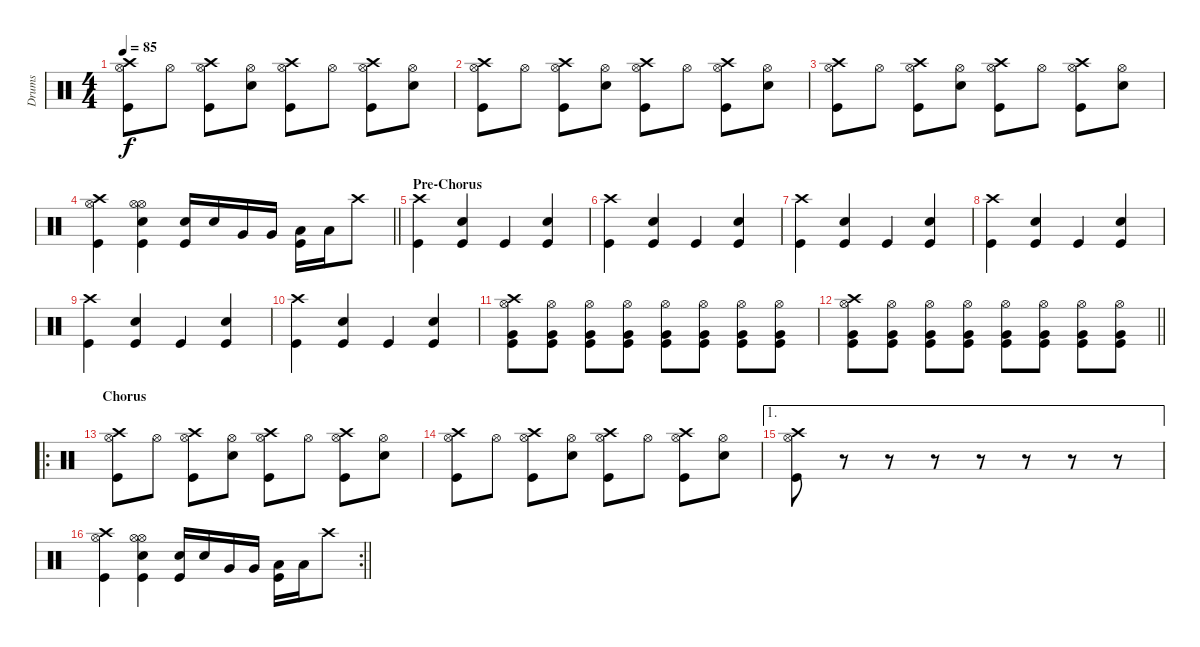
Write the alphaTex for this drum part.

\track ("Drums" "Drums") {instrument percussion}
\staff {score}
\articulation defaults
\ts (4 4)
\tempo 85
\clef neutral
\ks c
("Crash high (hit)" "Hi-Hat (open)" "Kick (hit)").8{dy f} "Hi-Hat (open)".8 ("Crash high (hit)" "Hi-Hat (open)" "Kick (hit)").8 ("Hi-Hat (open)" "Snare (hit) 2").8 ("Crash high (hit)" "Hi-Hat (open)" "Kick (hit)").8 "Hi-Hat (open)".8 ("Crash high (hit)" "Hi-Hat (open)" "Kick (hit)").8 ("Hi-Hat (open)" "Snare (hit) 2").8 |
("Crash high (hit)" "Hi-Hat (open)" "Kick (hit)").8 "Hi-Hat (open)".8 ("Crash high (hit)" "Hi-Hat (open)" "Kick (hit)").8 ("Hi-Hat (open)" "Snare (hit) 2").8 ("Crash high (hit)" "Hi-Hat (open)" "Kick (hit)").8 "Hi-Hat (open)".8 ("Crash high (hit)" "Hi-Hat (open)" "Kick (hit)").8 ("Hi-Hat (open)" "Snare (hit) 2").8 |
("Crash high (hit)" "Hi-Hat (open)" "Kick (hit)").8 "Hi-Hat (open)".8 ("Crash high (hit)" "Hi-Hat (open)" "Kick (hit)").8 ("Hi-Hat (open)" "Snare (hit) 2").8 ("Crash high (hit)" "Hi-Hat (open)" "Kick (hit)").8 "Hi-Hat (open)".8 ("Crash high (hit)" "Hi-Hat (open)" "Kick (hit)").8 ("Hi-Hat (open)" "Snare (hit) 2").8 |
\barLineRight lightlight
("Crash high (hit)" "Hi-Hat (open)" "Kick (hit)").4 ("Hi-Hat (open)" "Hi-Hat (open)" "Snare (hit) 2" "Kick (hit)").4 ("Snare (hit) 2" "Kick (hit)").16 "Snare (hit) 2".16 "Very Low Tom (hit)".16 "Very Low Tom (hit)".16 ("Low Tom (hit)" "Kick (hit)").16 "Low Tom (hit)".16 "Crash high (hit)".8 |
\section ("" "Pre-Chorus")
("Crash high (hit)" "Kick (hit)").4 ("Snare (hit) 2" "Kick (hit)").4 "Kick (hit)".4 ("Snare (hit) 2" "Kick (hit)").4 |
("Crash high (hit)" "Kick (hit)").4 ("Snare (hit) 2" "Kick (hit)").4 "Kick (hit)".4 ("Snare (hit) 2" "Kick (hit)").4 |
("Crash high (hit)" "Kick (hit)").4 ("Snare (hit) 2" "Kick (hit)").4 "Kick (hit)".4 ("Snare (hit) 2" "Kick (hit)").4 |
("Crash high (hit)" "Kick (hit)").4 ("Snare (hit) 2" "Kick (hit)").4 "Kick (hit)".4 ("Snare (hit) 2" "Kick (hit)").4 |
("Crash high (hit)" "Kick (hit)").4 ("Snare (hit) 2" "Kick (hit)").4 "Kick (hit)".4 ("Snare (hit) 2" "Kick (hit)").4 |
("Crash high (hit)" "Kick (hit)").4 ("Snare (hit) 2" "Kick (hit)").4 "Kick (hit)".4 ("Snare (hit) 2" "Kick (hit)").4 |
("Crash high (hit)" "Hi-Hat (open)" "Very Low Tom (hit)" "Kick (hit)").8 ("Hi-Hat (open)" "Very Low Tom (hit)" "Kick (hit)").8 ("Hi-Hat (open)" "Very Low Tom (hit)" "Kick (hit)").8 ("Hi-Hat (open)" "Very Low Tom (hit)" "Kick (hit)").8 ("Hi-Hat (open)" "Very Low Tom (hit)" "Kick (hit)").8 ("Hi-Hat (open)" "Very Low Tom (hit)" "Kick (hit)").8 ("Hi-Hat (open)" "Very Low Tom (hit)" "Kick (hit)").8 ("Hi-Hat (open)" "Very Low Tom (hit)" "Kick (hit)").8 |
\barLineRight lightlight
("Crash high (hit)" "Hi-Hat (open)" "Very Low Tom (hit)" "Kick (hit)").8 ("Hi-Hat (open)" "Very Low Tom (hit)" "Kick (hit)").8 ("Hi-Hat (open)" "Very Low Tom (hit)" "Kick (hit)").8 ("Hi-Hat (open)" "Very Low Tom (hit)" "Kick (hit)").8 ("Hi-Hat (open)" "Very Low Tom (hit)" "Kick (hit)").8 ("Hi-Hat (open)" "Very Low Tom (hit)" "Kick (hit)").8 ("Hi-Hat (open)" "Very Low Tom (hit)" "Kick (hit)").8 ("Hi-Hat (open)" "Very Low Tom (hit)" "Kick (hit)").8 |
\ro
\section ("" "Chorus")
("Crash high (hit)" "Hi-Hat (open)" "Kick (hit)").8 "Hi-Hat (open)".8 ("Crash high (hit)" "Hi-Hat (open)" "Kick (hit)").8 ("Hi-Hat (open)" "Snare (hit) 2").8 ("Crash high (hit)" "Hi-Hat (open)" "Kick (hit)").8 "Hi-Hat (open)".8 ("Crash high (hit)" "Hi-Hat (open)" "Kick (hit)").8 ("Hi-Hat (open)" "Snare (hit) 2").8 |
("Crash high (hit)" "Hi-Hat (open)" "Kick (hit)").8 "Hi-Hat (open)".8 ("Crash high (hit)" "Hi-Hat (open)" "Kick (hit)").8 ("Hi-Hat (open)" "Snare (hit) 2").8 ("Crash high (hit)" "Hi-Hat (open)" "Kick (hit)").8 "Hi-Hat (open)".8 ("Crash high (hit)" "Hi-Hat (open)" "Kick (hit)").8 ("Hi-Hat (open)" "Snare (hit) 2").8 |
\ae 1
("Crash high (hit)" "Hi-Hat (open)" "Kick (hit)").8 r.8 r.8 r.8 r.8 r.8 r.8 r.8 |
\rc 2
\barLineRight lightlight
("Crash high (hit)" "Hi-Hat (open)" "Kick (hit)").4 ("Hi-Hat (open)" "Hi-Hat (open)" "Snare (hit) 2" "Kick (hit)").4 ("Snare (hit) 2" "Kick (hit)").16 "Snare (hit) 2".16 "Very Low Tom (hit)".16 "Very Low Tom (hit)".16 ("Low Tom (hit)" "Kick (hit)").16 "Low Tom (hit)".16 "Crash high (hit)".8
